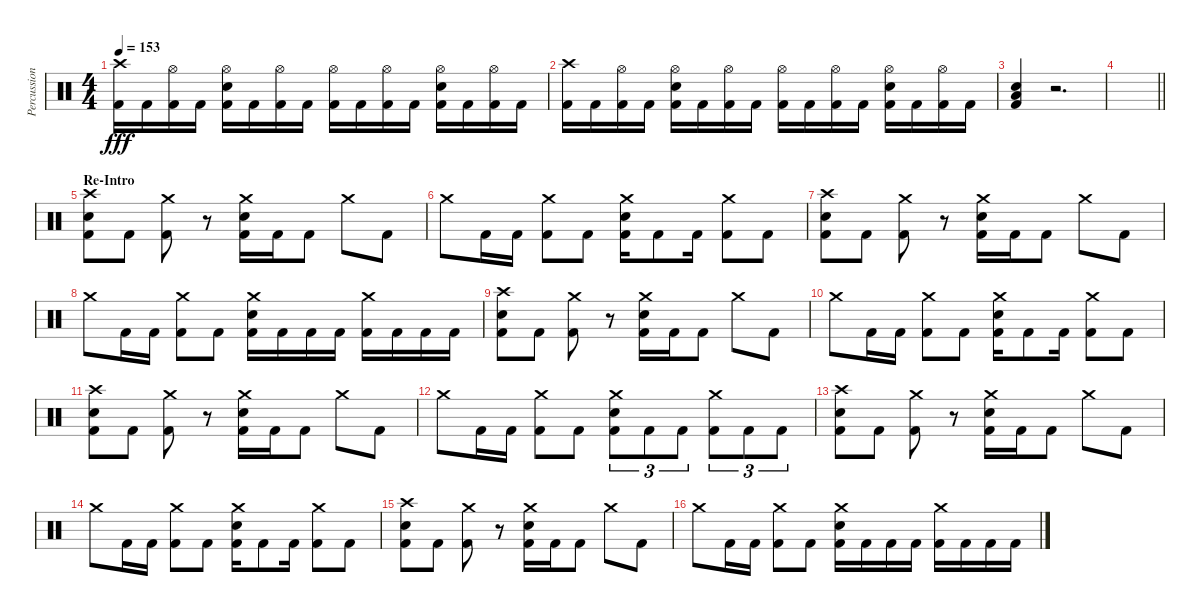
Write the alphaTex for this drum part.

\track ("Percussion" "Percussion") {instrument percussion}
\staff {score}
\articulation defaults
\ts (4 4)
\tempo 153
\clef neutral
\ks c
("Crash high (hit)" "Kick (hit) 2").16{dy fff} "Kick (hit) 2".16 ("Hi-Hat (open)" "Kick (hit) 2").16 "Kick (hit) 2".16 ("Hi-Hat (open)" "Snare (hit) 2" "Kick (hit) 2").16 "Kick (hit) 2".16 ("Hi-Hat (open)" "Kick (hit) 2").16 "Kick (hit) 2".16 ("Hi-Hat (open)" "Kick (hit) 2").16 "Kick (hit) 2".16 ("Hi-Hat (open)" "Kick (hit) 2").16 "Kick (hit) 2".16 ("Hi-Hat (open)" "Snare (hit) 2" "Kick (hit) 2").16 "Kick (hit) 2".16 ("Hi-Hat (open)" "Kick (hit) 2").16 "Kick (hit) 2".16 |
("Crash high (hit)" "Kick (hit) 2").16 "Kick (hit) 2".16 ("Hi-Hat (open)" "Kick (hit) 2").16 "Kick (hit) 2".16 ("Hi-Hat (open)" "Snare (hit) 2" "Kick (hit) 2").16 "Kick (hit) 2".16 ("Hi-Hat (open)" "Kick (hit) 2").16 "Kick (hit) 2".16 ("Hi-Hat (open)" "Kick (hit) 2").16 "Kick (hit) 2".16 ("Hi-Hat (open)" "Kick (hit) 2").16 "Kick (hit) 2".16 ("Hi-Hat (open)" "Snare (hit) 2" "Kick (hit) 2").16 "Kick (hit) 2".16 ("Hi-Hat (open)" "Kick (hit) 2").16 "Kick (hit) 2".16 |
("Low Floor Tom (hit)" "Snare (hit) 2" "Kick (hit) 2").4 r.2{d} |
\barLineRight lightlight
|
\section ("" "Re-Intro")
("Crash high (hit)" "Snare (hit) 2" "Kick (hit) 2").8 "Kick (hit) 2".8 ("Crash medium (hit)" "Kick (hit) 2").8 r.8 ("Snare (hit) 2" "Crash medium (hit)" "Kick (hit) 2").16 "Kick (hit) 2".16 "Kick (hit) 2".8 "Crash medium (hit)".8 "Kick (hit) 2".8 |
"Crash medium (hit)".8 "Kick (hit) 2".16 "Kick (hit) 2".16 ("Crash medium (hit)" "Kick (hit) 2").8 "Kick (hit) 2".8 ("Snare (hit) 2" "Crash medium (hit)" "Kick (hit) 2").16 "Kick (hit) 2".8 "Kick (hit) 2".16 ("Crash medium (hit)" "Kick (hit) 2").8 "Kick (hit) 2".8 |
("Crash high (hit)" "Snare (hit) 2" "Kick (hit) 2").8 "Kick (hit) 2".8 ("Crash medium (hit)" "Kick (hit) 2").8 r.8 ("Snare (hit) 2" "Crash medium (hit)" "Kick (hit) 2").16 "Kick (hit) 2".16 "Kick (hit) 2".8 "Crash medium (hit)".8 "Kick (hit) 2".8 |
"Crash medium (hit)".8 "Kick (hit) 2".16 "Kick (hit) 2".16 ("Crash medium (hit)" "Kick (hit) 2").8 "Kick (hit) 2".8 ("Snare (hit) 2" "Crash medium (hit)" "Kick (hit) 2").16 "Kick (hit) 2".16 "Kick (hit) 2".16 "Kick (hit) 2".16 ("Crash medium (hit)" "Kick (hit) 2").16 "Kick (hit) 2".16 "Kick (hit) 2".16 "Kick (hit) 2".16 |
("Crash high (hit)" "Snare (hit) 2" "Kick (hit) 2").8 "Kick (hit) 2".8 ("Crash medium (hit)" "Kick (hit) 2").8 r.8 ("Snare (hit) 2" "Crash medium (hit)" "Kick (hit) 2").16 "Kick (hit) 2".16 "Kick (hit) 2".8 "Crash medium (hit)".8 "Kick (hit) 2".8 |
"Crash medium (hit)".8 "Kick (hit) 2".16 "Kick (hit) 2".16 ("Crash medium (hit)" "Kick (hit) 2").8 "Kick (hit) 2".8 ("Snare (hit) 2" "Crash medium (hit)" "Kick (hit) 2").16 "Kick (hit) 2".8 "Kick (hit) 2".16 ("Crash medium (hit)" "Kick (hit) 2").8 "Kick (hit) 2".8 |
("Crash high (hit)" "Snare (hit) 2" "Kick (hit) 2").8 "Kick (hit) 2".8 ("Crash medium (hit)" "Kick (hit) 2").8 r.8 ("Snare (hit) 2" "Crash medium (hit)" "Kick (hit) 2").16 "Kick (hit) 2".16 "Kick (hit) 2".8 "Crash medium (hit)".8 "Kick (hit) 2".8 |
"Crash medium (hit)".8 "Kick (hit) 2".16 "Kick (hit) 2".16 ("Crash medium (hit)" "Kick (hit) 2").8 "Kick (hit) 2".8 ("Snare (hit) 2" "Crash medium (hit)" "Kick (hit) 2").8{tu (3 2)} "Kick (hit) 2".8{tu (3 2)} "Kick (hit) 2".8{tu (3 2)} ("Crash medium (hit)" "Kick (hit) 2").8{tu (3 2)} "Kick (hit) 2".8{tu (3 2)} "Kick (hit) 2".8{tu (3 2)} |
("Crash high (hit)" "Snare (hit) 2" "Kick (hit) 2").8 "Kick (hit) 2".8 ("Crash medium (hit)" "Kick (hit) 2").8 r.8 ("Snare (hit) 2" "Crash medium (hit)" "Kick (hit) 2").16 "Kick (hit) 2".16 "Kick (hit) 2".8 "Crash medium (hit)".8 "Kick (hit) 2".8 |
"Crash medium (hit)".8 "Kick (hit) 2".16 "Kick (hit) 2".16 ("Crash medium (hit)" "Kick (hit) 2").8 "Kick (hit) 2".8 ("Snare (hit) 2" "Crash medium (hit)" "Kick (hit) 2").16 "Kick (hit) 2".8 "Kick (hit) 2".16 ("Crash medium (hit)" "Kick (hit) 2").8 "Kick (hit) 2".8 |
("Crash high (hit)" "Snare (hit) 2" "Kick (hit) 2").8 "Kick (hit) 2".8 ("Crash medium (hit)" "Kick (hit) 2").8 r.8 ("Snare (hit) 2" "Crash medium (hit)" "Kick (hit) 2").16 "Kick (hit) 2".16 "Kick (hit) 2".8 "Crash medium (hit)".8 "Kick (hit) 2".8 |
"Crash medium (hit)".8 "Kick (hit) 2".16 "Kick (hit) 2".16 ("Crash medium (hit)" "Kick (hit) 2").8 "Kick (hit) 2".8 ("Snare (hit) 2" "Crash medium (hit)" "Kick (hit) 2").16 "Kick (hit) 2".16 "Kick (hit) 2".16 "Kick (hit) 2".16 ("Crash medium (hit)" "Kick (hit) 2").16 "Kick (hit) 2".16 "Kick (hit) 2".16 "Kick (hit) 2".16
